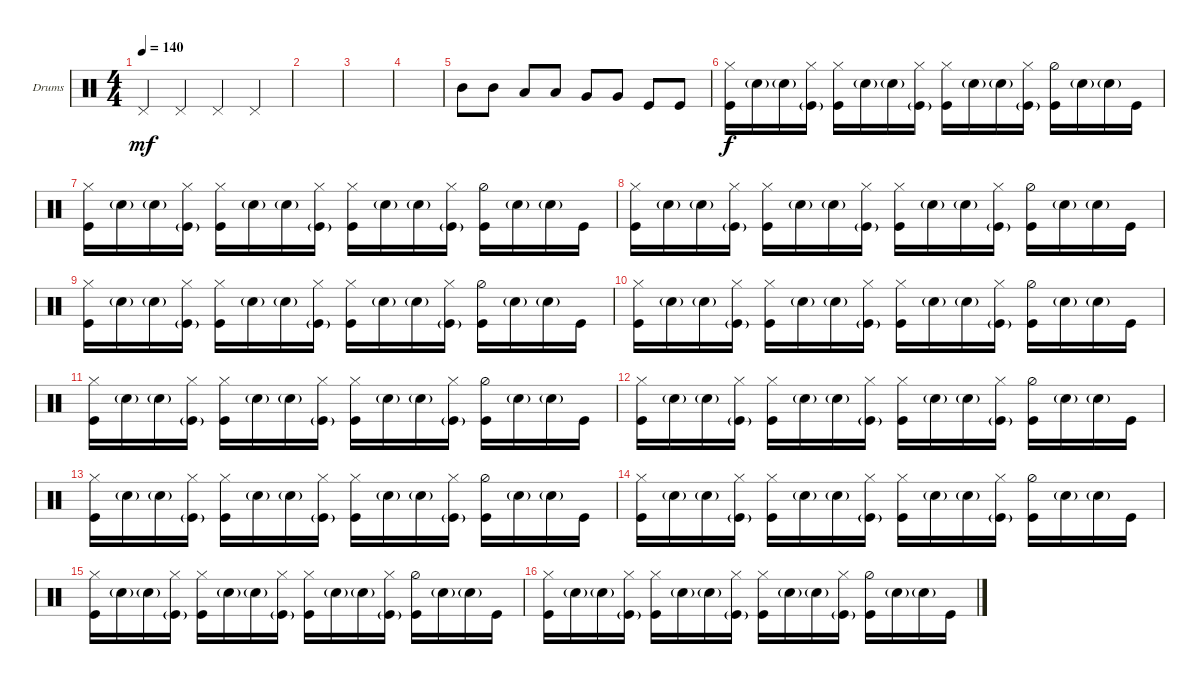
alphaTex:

\defaultSystemsLayout 4
\bracketExtendMode nobrackets
\firstSystemTrackNameOrientation horizontal
\otherSystemsTrackNameOrientation horizontal
\track ("Nazar" "Drums") {instrument percussion}
\staff {score}
\articulation defaults
\ts (4 4)
\tempo 140
\clef neutral
\ks c "Pedal Hi-Hat (hit)".4{dy mf} "Pedal Hi-Hat (hit)".4 "Pedal Hi-Hat (hit)".4 "Pedal Hi-Hat (hit)".4
|
\scale
0.474178 |
\scale
0.262911 |
\scale
0.262911 |
\scale
0.333333 "Mid Tom (hit)".8 "Mid Tom (hit)".8 "Low Tom (hit)".8 "Low Tom (hit)".8 "Very Low Tom (hit)".8 "Very Low Tom (hit)".8 "Kick (hit)".8 "Kick (hit)".8 |
\scale
0.333333 ("Hi-Hat (closed)" "Kick (hit)").16{dy f} "Snare (hit) 2"{g}.16 "Snare (hit) 2"{g}.16 ("Kick (hit)"{g} "Hi-Hat (closed)").16 ("Kick (hit)" "Hi-Hat (closed)").16 "Snare (hit) 2"{g}.16 "Snare (hit) 2"{g}.16 ("Kick (hit)"{g} "Hi-Hat (closed)").16 ("Kick (hit)" "Hi-Hat (closed)").16 "Snare (hit) 2"{g}.16 "Snare (hit) 2"{g}.16 ("Kick (hit)"{g} "Hi-Hat (closed)").16 ("Kick (hit)" "Hi-Hat (half)").16 "Snare (hit) 2"{g}.16 "Snare (hit) 2"{g}.16 "Kick (hit)".16 |
\scale
0.333333 ("Hi-Hat (closed)" "Kick (hit)").16 "Snare (hit) 2"{g}.16 "Snare (hit) 2"{g}.16 ("Kick (hit)"{g} "Hi-Hat (closed)").16 ("Kick (hit)" "Hi-Hat (closed)").16 "Snare (hit) 2"{g}.16 "Snare (hit) 2"{g}.16 ("Kick (hit)"{g} "Hi-Hat (closed)").16 ("Kick (hit)" "Hi-Hat (closed)").16 "Snare (hit) 2"{g}.16 "Snare (hit) 2"{g}.16 ("Kick (hit)"{g} "Hi-Hat (closed)").16 ("Kick (hit)" "Hi-Hat (half)").16 "Snare (hit) 2"{g}.16 "Snare (hit) 2"{g}.16 "Kick (hit)".16 |
\scale
0.333333 ("Hi-Hat (closed)" "Kick (hit)").16 "Snare (hit) 2"{g}.16 "Snare (hit) 2"{g}.16 ("Kick (hit)"{g} "Hi-Hat (closed)").16 ("Kick (hit)" "Hi-Hat (closed)").16 "Snare (hit) 2"{g}.16 "Snare (hit) 2"{g}.16 ("Kick (hit)"{g} "Hi-Hat (closed)").16 ("Kick (hit)" "Hi-Hat (closed)").16 "Snare (hit) 2"{g}.16 "Snare (hit) 2"{g}.16 ("Kick (hit)"{g} "Hi-Hat (closed)").16 ("Kick (hit)" "Hi-Hat (half)").16 "Snare (hit) 2"{g}.16 "Snare (hit) 2"{g}.16 "Kick (hit)".16 |
\scale
0.333333 ("Hi-Hat (closed)" "Kick (hit)").16 "Snare (hit) 2"{g}.16 "Snare (hit) 2"{g}.16 ("Kick (hit)"{g} "Hi-Hat (closed)").16 ("Kick (hit)" "Hi-Hat (closed)").16 "Snare (hit) 2"{g}.16 "Snare (hit) 2"{g}.16 ("Kick (hit)"{g} "Hi-Hat (closed)").16 ("Kick (hit)" "Hi-Hat (closed)").16 "Snare (hit) 2"{g}.16 "Snare (hit) 2"{g}.16 ("Kick (hit)"{g} "Hi-Hat (closed)").16 ("Kick (hit)" "Hi-Hat (half)").16 "Snare (hit) 2"{g}.16 "Snare (hit) 2"{g}.16 "Kick (hit)".16 |
\scale
0.333333 ("Hi-Hat (closed)" "Kick (hit)").16 "Snare (hit) 2"{g}.16 "Snare (hit) 2"{g}.16 ("Kick (hit)"{g} "Hi-Hat (closed)").16 ("Kick (hit)" "Hi-Hat (closed)").16 "Snare (hit) 2"{g}.16 "Snare (hit) 2"{g}.16 ("Kick (hit)"{g} "Hi-Hat (closed)").16 ("Kick (hit)" "Hi-Hat (closed)").16 "Snare (hit) 2"{g}.16 "Snare (hit) 2"{g}.16 ("Kick (hit)"{g} "Hi-Hat (closed)").16 ("Kick (hit)" "Hi-Hat (half)").16 "Snare (hit) 2"{g}.16 "Snare (hit) 2"{g}.16 "Kick (hit)".16 |
\scale
0.333333 ("Hi-Hat (closed)" "Kick (hit)").16 "Snare (hit) 2"{g}.16 "Snare (hit) 2"{g}.16 ("Kick (hit)"{g} "Hi-Hat (closed)").16 ("Kick (hit)" "Hi-Hat (closed)").16 "Snare (hit) 2"{g}.16 "Snare (hit) 2"{g}.16 ("Kick (hit)"{g} "Hi-Hat (closed)").16 ("Kick (hit)" "Hi-Hat (closed)").16 "Snare (hit) 2"{g}.16 "Snare (hit) 2"{g}.16 ("Kick (hit)"{g} "Hi-Hat (closed)").16 ("Kick (hit)" "Hi-Hat (half)").16 "Snare (hit) 2"{g}.16 "Snare (hit) 2"{g}.16 "Kick (hit)".16 |
\scale
0.333333 ("Hi-Hat (closed)" "Kick (hit)").16 "Snare (hit) 2"{g}.16 "Snare (hit) 2"{g}.16 ("Kick (hit)"{g} "Hi-Hat (closed)").16 ("Kick (hit)" "Hi-Hat (closed)").16 "Snare (hit) 2"{g}.16 "Snare (hit) 2"{g}.16 ("Kick (hit)"{g} "Hi-Hat (closed)").16 ("Kick (hit)" "Hi-Hat (closed)").16 "Snare (hit) 2"{g}.16 "Snare (hit) 2"{g}.16 ("Kick (hit)"{g} "Hi-Hat (closed)").16 ("Kick (hit)" "Hi-Hat (half)").16 "Snare (hit) 2"{g}.16 "Snare (hit) 2"{g}.16 "Kick (hit)".16 |
\scale
0.333333 ("Hi-Hat (closed)" "Kick (hit)").16 "Snare (hit) 2"{g}.16 "Snare (hit) 2"{g}.16 ("Kick (hit)"{g} "Hi-Hat (closed)").16 ("Kick (hit)" "Hi-Hat (closed)").16 "Snare (hit) 2"{g}.16 "Snare (hit) 2"{g}.16 ("Kick (hit)"{g} "Hi-Hat (closed)").16 ("Kick (hit)" "Hi-Hat (closed)").16 "Snare (hit) 2"{g}.16 "Snare (hit) 2"{g}.16 ("Kick (hit)"{g} "Hi-Hat (closed)").16 ("Kick (hit)" "Hi-Hat (half)").16 "Snare (hit) 2"{g}.16 "Snare (hit) 2"{g}.16 "Kick (hit)".16 |
\scale
0.333333 ("Hi-Hat (closed)" "Kick (hit)").16 "Snare (hit) 2"{g}.16 "Snare (hit) 2"{g}.16 ("Kick (hit)"{g} "Hi-Hat (closed)").16 ("Kick (hit)" "Hi-Hat (closed)").16 "Snare (hit) 2"{g}.16 "Snare (hit) 2"{g}.16 ("Kick (hit)"{g} "Hi-Hat (closed)").16 ("Kick (hit)" "Hi-Hat (closed)").16 "Snare (hit) 2"{g}.16 "Snare (hit) 2"{g}.16 ("Kick (hit)"{g} "Hi-Hat (closed)").16 ("Kick (hit)" "Hi-Hat (half)").16 "Snare (hit) 2"{g}.16 "Snare (hit) 2"{g}.16 "Kick (hit)".16 |
\scale
0.333333 ("Hi-Hat (closed)" "Kick (hit)").16 "Snare (hit) 2"{g}.16 "Snare (hit) 2"{g}.16 ("Kick (hit)"{g} "Hi-Hat (closed)").16 ("Kick (hit)" "Hi-Hat (closed)").16 "Snare (hit) 2"{g}.16 "Snare (hit) 2"{g}.16 ("Kick (hit)"{g} "Hi-Hat (closed)").16 ("Kick (hit)" "Hi-Hat (closed)").16 "Snare (hit) 2"{g}.16 "Snare (hit) 2"{g}.16 ("Kick (hit)"{g} "Hi-Hat (closed)").16 ("Kick (hit)" "Hi-Hat (half)").16 "Snare (hit) 2"{g}.16 "Snare (hit) 2"{g}.16 "Kick (hit)".16 |
\scale
0.333333 ("Hi-Hat (closed)" "Kick (hit)").16 "Snare (hit) 2"{g}.16 "Snare (hit) 2"{g}.16 ("Kick (hit)"{g} "Hi-Hat (closed)").16 ("Kick (hit)" "Hi-Hat (closed)").16 "Snare (hit) 2"{g}.16 "Snare (hit) 2"{g}.16 ("Kick (hit)"{g} "Hi-Hat (closed)").16 ("Kick (hit)" "Hi-Hat (closed)").16 "Snare (hit) 2"{g}.16 "Snare (hit) 2"{g}.16 ("Kick (hit)"{g} "Hi-Hat (closed)").16 ("Kick (hit)" "Hi-Hat (half)").16 "Snare (hit) 2"{g}.16 "Snare (hit) 2"{g}.16 "Kick (hit)".16
